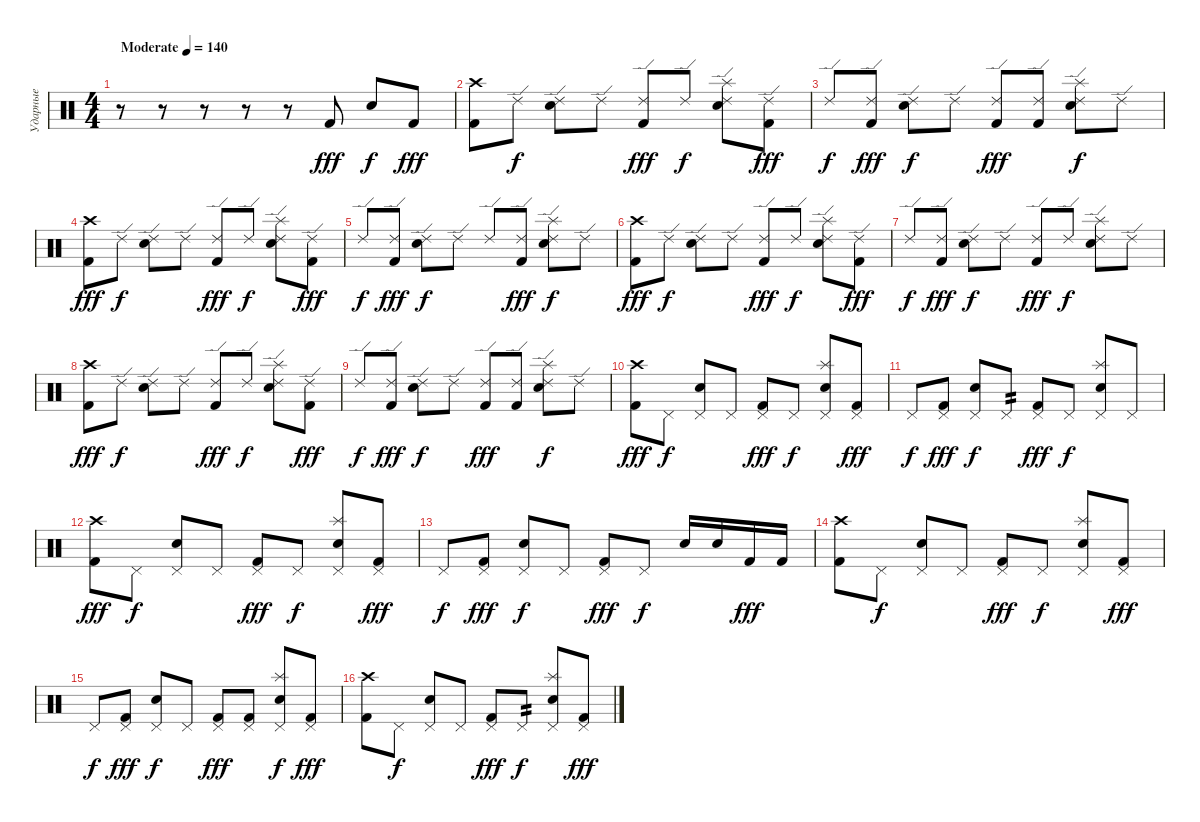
\track ("Ударные" "Ударные") {instrument percussion}
\staff {score}
\articulation defaults
\ts (4 4)
\tempo (140 "Moderate")
\clef neutral
\ks c
r.8{dy fff} r.8 r.8 r.8 r.8 "Kick (hit) 2".8 "Electric Snare (hit)".8{dy f} "Kick (hit) 2".8{dy fff} |
("Crash high (hit)" "Kick (hit) 2").8 "Ride (edge) 2".8{dy f} ("Ride (edge) 2" "Electric Snare (hit)").8 "Ride (edge) 2".8 ("Ride (edge) 2" "Kick (hit) 2").8{dy fff} "Ride (edge) 2".8{dy f} ("Splash (hit)" "Ride (edge) 2" "Electric Snare (hit)").8 ("Ride (edge) 2" "Kick (hit) 2").8{dy fff} |
"Ride (edge) 2".8{dy f} ("Ride (edge) 2" "Kick (hit) 2").8{dy fff} ("Ride (edge) 2" "Electric Snare (hit)").8{dy f} "Ride (edge) 2".8 ("Ride (edge) 2" "Kick (hit) 2").8{dy fff} ("Ride (edge) 2" "Kick (hit) 2").8 ("Splash (hit)" "Ride (edge) 2" "Electric Snare (hit)").8{dy f} "Ride (edge) 2".8 |
("Crash high (hit)" "Kick (hit) 2").8{dy fff} "Ride (edge) 2".8{dy f} ("Ride (edge) 2" "Electric Snare (hit)").8 "Ride (edge) 2".8 ("Ride (edge) 2" "Kick (hit) 2").8{dy fff} "Ride (edge) 2".8{dy f} ("Splash (hit)" "Ride (edge) 2" "Electric Snare (hit)").8 ("Ride (edge) 2" "Kick (hit) 2").8{dy fff} |
"Ride (edge) 2".8{dy f} ("Ride (edge) 2" "Kick (hit) 2").8{dy fff} ("Ride (edge) 2" "Electric Snare (hit)").8{dy f} "Ride (edge) 2".8 "Ride (edge) 2".8 ("Ride (edge) 2" "Kick (hit) 2").8{dy fff} ("Splash (hit)" "Ride (edge) 2" "Electric Snare (hit)").8{dy f} "Ride (edge) 2".8 |
("Crash high (hit)" "Kick (hit) 2").8{dy fff} "Ride (edge) 2".8{dy f} ("Ride (edge) 2" "Electric Snare (hit)").8 "Ride (edge) 2".8 ("Ride (edge) 2" "Kick (hit) 2").8{dy fff} "Ride (edge) 2".8{dy f} ("Splash (hit)" "Ride (edge) 2" "Electric Snare (hit)").8 ("Ride (edge) 2" "Kick (hit) 2").8{dy fff} |
"Ride (edge) 2".8{dy f} ("Ride (edge) 2" "Kick (hit) 2").8{dy fff} ("Ride (edge) 2" "Electric Snare (hit)").8{dy f} "Ride (edge) 2".8 ("Ride (edge) 2" "Kick (hit) 2").8{dy fff} "Ride (edge) 2".8{dy f} ("Splash (hit)" "Ride (edge) 2" "Electric Snare (hit)").8 "Ride (edge) 2".8 |
("Crash high (hit)" "Kick (hit) 2").8{dy fff} "Ride (edge) 2".8{dy f} ("Ride (edge) 2" "Electric Snare (hit)").8 "Ride (edge) 2".8 ("Ride (edge) 2" "Kick (hit) 2").8{dy fff} "Ride (edge) 2".8{dy f} ("Splash (hit)" "Ride (edge) 2" "Electric Snare (hit)").8 ("Ride (edge) 2" "Kick (hit) 2").8{dy fff} |
"Ride (edge) 2".8{dy f} ("Ride (edge) 2" "Kick (hit) 2").8{dy fff} ("Ride (edge) 2" "Electric Snare (hit)").8{dy f} "Ride (edge) 2".8 ("Ride (edge) 2" "Kick (hit) 2").8{dy fff} ("Ride (edge) 2" "Kick (hit) 2").8 ("Splash (hit)" "Ride (edge) 2" "Electric Snare (hit)").8{dy f} "Ride (edge) 2".8 |
("Crash high (hit)" "Kick (hit) 2").8{dy fff} "Pedal Hi-Hat (hit)".8{dy f} ("Pedal Hi-Hat (hit)" "Electric Snare (hit)").8 "Pedal Hi-Hat (hit)".8 ("Pedal Hi-Hat (hit)" "Kick (hit) 2").8{dy fff} "Pedal Hi-Hat (hit)".8{dy f} ("Splash (hit)" "Pedal Hi-Hat (hit)" "Electric Snare (hit)").8 ("Pedal Hi-Hat (hit)" "Kick (hit) 2").8{dy fff} |
"Pedal Hi-Hat (hit)".8{dy f} ("Pedal Hi-Hat (hit)" "Kick (hit) 2").8{dy fff} ("Pedal Hi-Hat (hit)" "Electric Snare (hit)").8{dy f} "Pedal Hi-Hat (hit)".8{tp 2} ("Pedal Hi-Hat (hit)" "Kick (hit) 2").8{dy fff} "Pedal Hi-Hat (hit)".8{dy f} ("Splash (hit)" "Pedal Hi-Hat (hit)" "Electric Snare (hit)").8 "Pedal Hi-Hat (hit)".8 |
("Crash high (hit)" "Kick (hit) 2").8{dy fff} "Pedal Hi-Hat (hit)".8{dy f} ("Pedal Hi-Hat (hit)" "Electric Snare (hit)").8 "Pedal Hi-Hat (hit)".8 ("Pedal Hi-Hat (hit)" "Kick (hit) 2").8{dy fff} "Pedal Hi-Hat (hit)".8{dy f} ("Splash (hit)" "Pedal Hi-Hat (hit)" "Electric Snare (hit)").8 ("Pedal Hi-Hat (hit)" "Kick (hit) 2").8{dy fff} |
"Pedal Hi-Hat (hit)".8{dy f} ("Pedal Hi-Hat (hit)" "Kick (hit) 2").8{dy fff} ("Pedal Hi-Hat (hit)" "Electric Snare (hit)").8{dy f} "Pedal Hi-Hat (hit)".8 ("Pedal Hi-Hat (hit)" "Kick (hit) 2").8{dy fff} "Pedal Hi-Hat (hit)".8{dy f} "Electric Snare (hit)".16 "Electric Snare (hit)".16 "Kick (hit) 2".16{dy fff} "Kick (hit) 2".16 |
("Crash high (hit)" "Kick (hit) 2").8 "Pedal Hi-Hat (hit)".8{dy f} ("Pedal Hi-Hat (hit)" "Electric Snare (hit)").8 "Pedal Hi-Hat (hit)".8 ("Pedal Hi-Hat (hit)" "Kick (hit) 2").8{dy fff} "Pedal Hi-Hat (hit)".8{dy f} ("Splash (hit)" "Pedal Hi-Hat (hit)" "Electric Snare (hit)").8 ("Pedal Hi-Hat (hit)" "Kick (hit) 2").8{dy fff} |
"Pedal Hi-Hat (hit)".8{dy f} ("Pedal Hi-Hat (hit)" "Kick (hit) 2").8{dy fff} ("Pedal Hi-Hat (hit)" "Electric Snare (hit)").8{dy f} "Pedal Hi-Hat (hit)".8 ("Pedal Hi-Hat (hit)" "Kick (hit) 2").8{dy fff} ("Pedal Hi-Hat (hit)" "Kick (hit) 2").8 ("Splash (hit)" "Pedal Hi-Hat (hit)" "Electric Snare (hit)").8{dy f} ("Pedal Hi-Hat (hit)" "Kick (hit) 2").8{dy fff} |
("Crash high (hit)" "Kick (hit) 2").8 "Pedal Hi-Hat (hit)".8{dy f} ("Pedal Hi-Hat (hit)" "Electric Snare (hit)").8 "Pedal Hi-Hat (hit)".8 ("Pedal Hi-Hat (hit)" "Kick (hit) 2").8{dy fff} "Pedal Hi-Hat (hit)".8{tp 2 dy f} ("Splash (hit)" "Pedal Hi-Hat (hit)" "Electric Snare (hit)").8 ("Pedal Hi-Hat (hit)" "Kick (hit) 2").8{dy fff}
